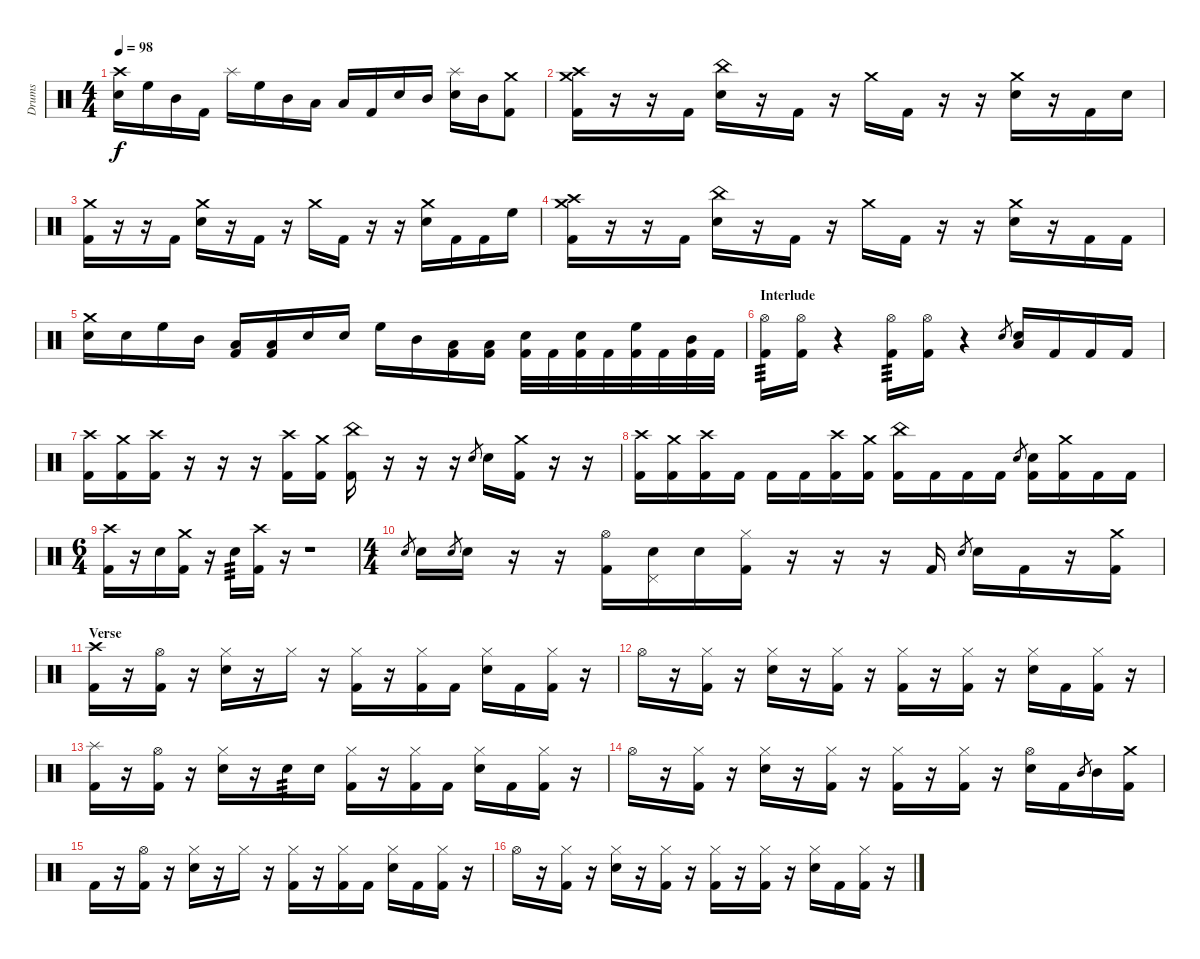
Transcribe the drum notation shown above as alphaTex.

\track ("Drums" "Drums") {instrument percussion}
\staff {score}
\articulation defaults
\ts (4 4)
\tempo 98
\clef neutral
\ks c
("Crash high (hit)" "Electric Snare (hit)").16{dy f} "High Floor Tom (hit)".16 "Mid Tom (hit)".16 "Kick (hit) 2".16 "Splash (hit)".16 "High Floor Tom (hit)".16 "Mid Tom (hit)".16 "Low Tom (hit)".16 "Low Floor Tom (hit)".16 "Kick (hit) 2".16 "Electric Snare (hit)".16 "Mid Tom (hit)".16 ("Splash (hit)" "Electric Snare (hit)").16 "Mid Tom (hit)".16 ("Crash medium (hit)" "Kick (hit) 2").8 |
("Crash medium (hit)" "Crash high (hit)" "Kick (hit) 2").16 r.16 r.16 "Kick (hit) 2".16 ("China (hit)" "Electric Snare (hit)").16 r.16 "Kick (hit) 2".16 r.16 "Crash medium (hit)".16 "Kick (hit) 2".16 r.16 r.16 ("Crash medium (hit)" "Electric Snare (hit)").16 r.16 "Kick (hit) 2".16 "Electric Snare (hit)".16 |
("Crash medium (hit)" "Kick (hit) 2").16 r.16 r.16 "Kick (hit) 2".16 ("Crash medium (hit)" "Electric Snare (hit)").16 r.16 "Kick (hit) 2".16 r.16 "Crash medium (hit)".16 "Kick (hit) 2".16 r.16 r.16 ("Crash medium (hit)" "Electric Snare (hit)").16 "Kick (hit) 2".16 "Kick (hit) 2".16 "High Floor Tom (hit)".16 |
("Crash medium (hit)" "Crash high (hit)" "Kick (hit) 2").16 r.16 r.16 "Kick (hit) 2".16 ("China (hit)" "Electric Snare (hit)").16 r.16 "Kick (hit) 2".16 r.16 "Crash medium (hit)".16 "Kick (hit) 2".16 r.16 r.16 ("Crash medium (hit)" "Electric Snare (hit)").16 r.16 "Kick (hit) 2".16 "Kick (hit) 2".16 |
("Crash medium (hit)" "Electric Snare (hit)").16 "Electric Snare (hit)".16 "High Floor Tom (hit)".16 "Mid Tom (hit)".16 ("Low Tom (hit)" "Kick (hit) 2").16 ("Low Tom (hit)" "Kick (hit) 2").16 "Electric Snare (hit)".16 "Electric Snare (hit)".16 "High Floor Tom (hit)".16 "Mid Tom (hit)".16 ("Low Tom (hit)" "Kick (hit) 2").16 ("Low Tom (hit)" "Kick (hit) 2").16 ("Electric Snare (hit)" "Kick (hit) 2").32 "Kick (hit) 2".32 ("Electric Snare (hit)" "Kick (hit) 2").32 "Kick (hit) 2".32 ("High Floor Tom (hit)" "Kick (hit) 2").32 "Kick (hit) 2".32 ("Mid Tom (hit)" "Kick (hit) 2").32 "Kick (hit) 2".32 |
\section ("" "Interlude")
("Hi-Hat (open)" "Kick (hit) 2").16{tp 3} ("Hi-Hat (open)" "Kick (hit) 2").16 r.4 ("Hi-Hat (open)" "Kick (hit) 2").16{tp 3} ("Hi-Hat (open)" "Kick (hit) 2").16 r.4 "Electric Snare (hit)".8{gr} ("Electric Snare (hit)" "Low Floor Tom (hit)").16 "Kick (hit) 2".16 "Kick (hit) 2".16 "Kick (hit) 2".16 |
("Crash high (hit)" "Kick (hit) 2").16 ("Crash medium (hit)" "Kick (hit) 2").16 ("Crash high (hit)" "Kick (hit) 2").16 r.16 r.16 r.16 ("Crash high (hit)" "Kick (hit) 2").16 ("Crash medium (hit)" "Kick (hit) 2").16 ("China (hit)" "Kick (hit) 2").16 r.16 r.16 r.16 "Electric Snare (hit)".8{gr} "Electric Snare (hit)".16 ("Crash medium (hit)" "Kick (hit) 2").16 r.16 r.16 |
("Crash high (hit)" "Kick (hit) 2").16 ("Crash medium (hit)" "Kick (hit) 2").16 ("Crash high (hit)" "Kick (hit) 2").16 "Kick (hit) 2".16 "Kick (hit) 2".16 "Kick (hit) 2".16 ("Crash high (hit)" "Kick (hit) 2").16 ("Crash medium (hit)" "Kick (hit) 2").16 ("China (hit)" "Kick (hit) 2").16 "Kick (hit) 2".16 "Kick (hit) 2".16 "Kick (hit) 2".16 "Electric Snare (hit)".8{gr} ("Electric Snare (hit)" "Kick (hit) 2").16 ("Crash medium (hit)" "Kick (hit) 2").16 "Kick (hit) 2".16 "Kick (hit) 2".16 |
\ts (6 4)
("Crash high (hit)" "Kick (hit) 2").16 r.16 "Electric Snare (hit)".16 ("Crash medium (hit)" "Kick (hit) 2").16 r.16 "Electric Snare (hit)".16{tp 3} ("Crash high (hit)" "Kick (hit) 2").16 r.16 r.1 |
\ts (4 4)
"Electric Snare (hit)".8{gr} "Electric Snare (hit)".16 "Electric Snare (hit)".8{gr} "Electric Snare (hit)".16 r.16 r.16 ("Hi-Hat (open)" "Kick (hit) 2").16 ("Pedal Hi-Hat (hit)" "Electric Snare (hit)").16 "Electric Snare (hit)".16 ("Hi-Hat (closed)" "Kick (hit) 2").16 r.16 r.16 r.16 "Kick (hit) 2".16 "Electric Snare (hit)".8{gr} "Electric Snare (hit)".16 "Kick (hit) 2".16 r.16 ("Crash medium (hit)" "Kick (hit) 2").16 |
\section ("" "Verse")
("Crash high (hit)" "Kick (hit) 2").16 r.16 ("Hi-Hat (open)" "Kick (hit) 2").16 r.16 ("Hi-Hat (closed)" "Electric Snare (hit)").16 r.16 "Hi-Hat (closed)".16 r.16 ("Hi-Hat (closed)" "Kick (hit) 2").16 r.16 ("Hi-Hat (closed)" "Kick (hit) 2").16 "Kick (hit) 2".16 ("Hi-Hat (closed)" "Electric Snare (hit)").16 "Kick (hit) 2".16 ("Hi-Hat (closed)" "Kick (hit) 2").16 r.16 |
"Hi-Hat (open)".16 r.16 ("Hi-Hat (closed)" "Kick (hit) 2").16 r.16 ("Hi-Hat (closed)" "Electric Snare (hit)").16 r.16 ("Hi-Hat (closed)" "Kick (hit) 2").16 r.16 ("Hi-Hat (closed)" "Kick (hit) 2").16 r.16 ("Hi-Hat (closed)" "Kick (hit) 2").16 r.16 ("Hi-Hat (closed)" "Electric Snare (hit)").16 "Kick (hit) 2".16 ("Hi-Hat (closed)" "Kick (hit) 2").16 r.16 |
("Splash (hit)" "Kick (hit) 2").16 r.16 ("Hi-Hat (open)" "Kick (hit) 2").16 r.16 ("Hi-Hat (closed)" "Electric Snare (hit)").16 r.16 "Electric Snare (hit)".16{tp 3} "Electric Snare (hit)".16 ("Hi-Hat (closed)" "Kick (hit) 2").16 r.16 ("Hi-Hat (closed)" "Kick (hit) 2").16 "Kick (hit) 2".16 ("Hi-Hat (closed)" "Electric Snare (hit)").16 "Kick (hit) 2".16 ("Hi-Hat (closed)" "Kick (hit) 2").16 r.16 |
"Hi-Hat (open)".16 r.16 ("Hi-Hat (closed)" "Kick (hit) 2").16 r.16 ("Hi-Hat (closed)" "Electric Snare (hit)").16 r.16 ("Hi-Hat (closed)" "Kick (hit) 2").16 r.16 ("Hi-Hat (closed)" "Kick (hit) 2").16 r.16 ("Hi-Hat (closed)" "Kick (hit) 2").16 r.16 ("Hi-Hat (open)" "Electric Snare (hit)").16 "Kick (hit) 2".16 "Mid Tom (hit)".8{gr} "Mid Tom (hit)".16 ("Crash medium (hit)" "Kick (hit) 2").16 |
"Kick (hit) 2".16 r.16 ("Hi-Hat (open)" "Kick (hit) 2").16 r.16 ("Hi-Hat (closed)" "Electric Snare (hit)").16 r.16 "Hi-Hat (closed)".16 r.16 ("Hi-Hat (closed)" "Kick (hit) 2").16 r.16 ("Hi-Hat (closed)" "Kick (hit) 2").16 "Kick (hit) 2".16 ("Hi-Hat (closed)" "Electric Snare (hit)").16 "Kick (hit) 2".16 ("Hi-Hat (closed)" "Kick (hit) 2").16 r.16 |
"Hi-Hat (open)".16 r.16 ("Hi-Hat (closed)" "Kick (hit) 2").16 r.16 ("Hi-Hat (closed)" "Electric Snare (hit)").16 r.16 ("Hi-Hat (closed)" "Kick (hit) 2").16 r.16 ("Hi-Hat (closed)" "Kick (hit) 2").16 r.16 ("Hi-Hat (closed)" "Kick (hit) 2").16 r.16 ("Hi-Hat (closed)" "Electric Snare (hit)").16 "Kick (hit) 2".16 ("Hi-Hat (closed)" "Kick (hit) 2").16 r.16
